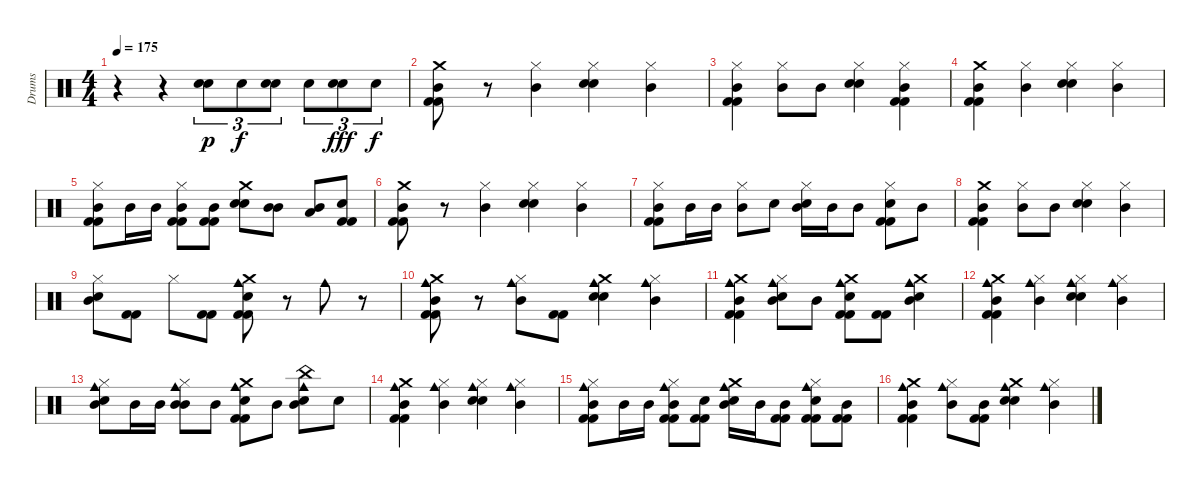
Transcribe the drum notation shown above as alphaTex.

\track ("Drums" "Drums") {instrument percussion}
\staff {score}
\articulation defaults
\ts (4 4)
\tempo 175
\clef neutral
\ks c
r.4{dy f} r.4 ("Electric Snare (hit)" "Snare (hit) 2").8{tu (3 2) dy p} "Electric Snare (hit)".8{tu (3 2) dy f} ("Electric Snare (hit)" "Snare (hit) 2").8{tu (3 2)} "Snare (hit) 2".8{tu (3 2)} ("Snare (hit) 2" "Snare (hit) 2").8{tu (3 2) dy fff} "Snare (hit) 2".8{tu (3 2) dy f} |
("Crash medium (hit)" "Mid Tom (hit)" "Kick (hit) 2" "Kick (hit) 2").8 r.8 ("Hi-Hat (closed)" "Mid Tom (hit)").4 ("Hi-Hat (closed)" "Electric Snare (hit)" "Snare (hit) 2").4 ("Hi-Hat (closed)" "Mid Tom (hit)").4 |
("Hi-Hat (closed)" "Mid Tom (hit)" "Kick (hit) 2" "Kick (hit) 2").4 ("Hi-Hat (closed)" "Mid Tom (hit)").8 "Mid Tom (hit)".8 ("Hi-Hat (closed)" "Electric Snare (hit)" "Snare (hit) 2").4 ("Hi-Hat (closed)" "Mid Tom (hit)" "Kick (hit) 2" "Kick (hit) 2").4 |
("Crash medium (hit)" "Mid Tom (hit)" "Kick (hit) 2" "Kick (hit) 2").4 ("Hi-Hat (closed)" "Mid Tom (hit)").4 ("Hi-Hat (closed)" "Electric Snare (hit)" "Snare (hit) 2").4 ("Hi-Hat (closed)" "Mid Tom (hit)").4 |
("Hi-Hat (closed)" "Mid Tom (hit)" "Kick (hit) 2" "Kick (hit) 2").8 "Mid Tom (hit)".16 "Mid Tom (hit)".16 ("Hi-Hat (closed)" "Mid Tom (hit)" "Kick (hit) 2" "Kick (hit) 2").8 ("Mid Tom (hit)" "Kick (hit) 2" "Kick (hit) 2").8 ("Crash medium (hit)" "Electric Snare (hit)" "Snare (hit) 2").8 ("Mid Tom (hit)" "Mid Tom (hit)").8 ("Mid Tom (hit)" "Low Tom (hit)").8 ("Electric Snare (hit)" "Kick (hit) 2" "Kick (hit) 2").8 |
("Crash medium (hit)" "Mid Tom (hit)" "Kick (hit) 2" "Kick (hit) 2").8 r.8 ("Hi-Hat (closed)" "Mid Tom (hit)").4 ("Hi-Hat (closed)" "Electric Snare (hit)" "Snare (hit) 2").4 ("Hi-Hat (closed)" "Mid Tom (hit)").4 |
("Hi-Hat (closed)" "Mid Tom (hit)" "Kick (hit) 2" "Kick (hit) 2").8 "Mid Tom (hit)".16 "Mid Tom (hit)".16 ("Hi-Hat (closed)" "Mid Tom (hit)").8 "Electric Snare (hit)".8 ("Hi-Hat (closed)" "Mid Tom (hit)" "Snare (hit) 2").16 "Mid Tom (hit)".16 "Mid Tom (hit)".8 ("Hi-Hat (closed)" "Electric Snare (hit)" "Kick (hit) 2" "Kick (hit) 2").8 "Mid Tom (hit)".8 |
("Crash medium (hit)" "Mid Tom (hit)" "Kick (hit) 2" "Kick (hit) 2").4 ("Hi-Hat (closed)" "Mid Tom (hit)").8 "Mid Tom (hit)".8 ("Hi-Hat (closed)" "Electric Snare (hit)" "Snare (hit) 2").4 ("Hi-Hat (closed)" "Mid Tom (hit)").4 |
("Hi-Hat (closed)" "Mid Tom (hit)" "Snare (hit) 2").8 ("Kick (hit) 2" "Kick (hit) 2").8 "Hi-Hat (closed)".8 ("Kick (hit) 2" "Kick (hit) 2").8 ("Crash medium (hit)" "Electric Snare (hit)" "Cowbell medium (hit)" "Kick (hit) 2" "Kick (hit) 2").8 r.8 "Cowbell medium (hit)".8 r.8 |
("Crash medium (hit)" "Mid Tom (hit)" "Cowbell medium (hit)" "Kick (hit) 2" "Kick (hit) 2").8 r.8 ("Hi-Hat (closed)" "Mid Tom (hit)" "Cowbell medium (hit)").8 ("Kick (hit) 2" "Kick (hit) 2").8 ("Crash medium (hit)" "Electric Snare (hit)" "Snare (hit) 2" "Cowbell medium (hit)").4 ("Hi-Hat (closed)" "Mid Tom (hit)" "Cowbell medium (hit)").4 |
("Crash medium (hit)" "Mid Tom (hit)" "Cowbell medium (hit)" "Kick (hit) 2" "Kick (hit) 2").4 ("Hi-Hat (closed)" "Mid Tom (hit)" "Snare (hit) 2" "Cowbell medium (hit)").8 "Mid Tom (hit)".8 ("Crash medium (hit)" "Electric Snare (hit)" "Cowbell medium (hit)" "Kick (hit) 2" "Kick (hit) 2").8 ("Kick (hit) 2" "Kick (hit) 2").8 ("Crash medium (hit)" "Mid Tom (hit)" "Snare (hit) 2" "Cowbell medium (hit)").4 |
("Crash medium (hit)" "Mid Tom (hit)" "Cowbell medium (hit)" "Kick (hit) 2" "Kick (hit) 2").4 ("Hi-Hat (closed)" "Mid Tom (hit)" "Cowbell medium (hit)").4 ("Hi-Hat (closed)" "Electric Snare (hit)" "Snare (hit) 2" "Cowbell medium (hit)").4 ("Hi-Hat (closed)" "Mid Tom (hit)" "Cowbell medium (hit)").4 |
("Hi-Hat (closed)" "Mid Tom (hit)" "Snare (hit) 2" "Cowbell medium (hit)").8 "Mid Tom (hit)".16 "Mid Tom (hit)".16 ("Hi-Hat (closed)" "Mid Tom (hit)" "Mid Tom (hit)" "Cowbell medium (hit)").8 "Mid Tom (hit)".8 ("Crash medium (hit)" "Electric Snare (hit)" "Cowbell medium (hit)" "Kick (hit) 2" "Kick (hit) 2").8 "Mid Tom (hit)".8 ("China (hit)" "Mid Tom (hit)" "Snare (hit) 2" "Cowbell medium (hit)").8 "Electric Snare (hit)".8 |
("Crash medium (hit)" "Mid Tom (hit)" "Cowbell medium (hit)" "Kick (hit) 2" "Kick (hit) 2").4 ("Hi-Hat (closed)" "Mid Tom (hit)" "Cowbell medium (hit)").4 ("Hi-Hat (closed)" "Electric Snare (hit)" "Snare (hit) 2" "Cowbell medium (hit)").4 ("Hi-Hat (closed)" "Mid Tom (hit)" "Cowbell medium (hit)").4 |
("Hi-Hat (closed)" "Mid Tom (hit)" "Cowbell medium (hit)" "Kick (hit) 2" "Kick (hit) 2").8 "Mid Tom (hit)".16 "Mid Tom (hit)".16 ("Hi-Hat (closed)" "Mid Tom (hit)" "Cowbell medium (hit)" "Kick (hit) 2" "Kick (hit) 2").8 ("Electric Snare (hit)" "Kick (hit) 2" "Kick (hit) 2").8 ("Crash medium (hit)" "Mid Tom (hit)" "Snare (hit) 2" "Cowbell medium (hit)").16 "Mid Tom (hit)".16 ("Mid Tom (hit)" "Kick (hit) 2" "Kick (hit) 2").8 ("Hi-Hat (closed)" "Electric Snare (hit)" "Cowbell medium (hit)" "Kick (hit) 2" "Kick (hit) 2").8 ("Mid Tom (hit)" "Kick (hit) 2" "Kick (hit) 2").8 |
("Crash medium (hit)" "Mid Tom (hit)" "Cowbell medium (hit)" "Kick (hit) 2" "Kick (hit) 2").4 ("Hi-Hat (closed)" "Mid Tom (hit)" "Cowbell medium (hit)").8 ("Mid Tom (hit)" "Kick (hit) 2" "Kick (hit) 2").8 ("Crash medium (hit)" "Electric Snare (hit)" "Snare (hit) 2" "Cowbell medium (hit)").4 ("Hi-Hat (closed)" "Mid Tom (hit)" "Cowbell medium (hit)").4
